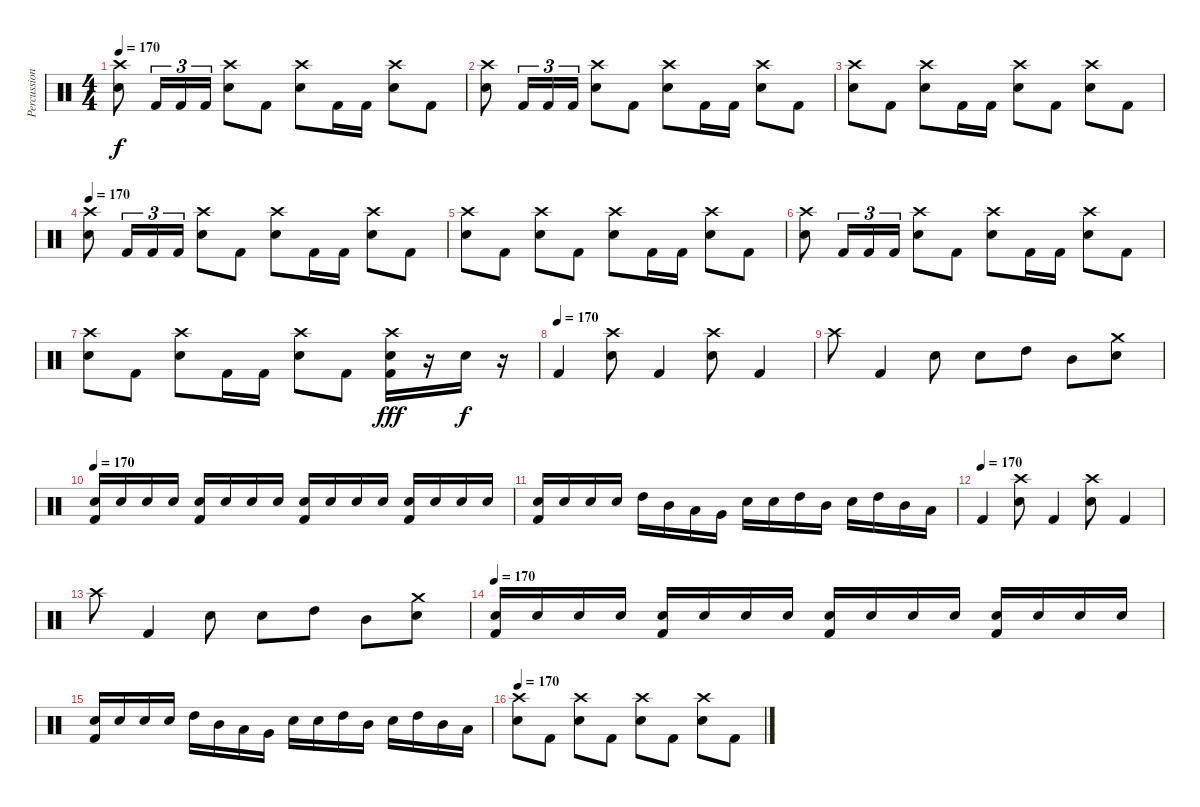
\track ("Percussion" "Percussion") {instrument percussion}
\staff {score}
\articulation defaults
\ts (4 4)
\tempo 170
\clef neutral
\ks c
("Crash high (hit)" "Electric Snare (hit)").8{dy f} "Kick (hit) 2".16{tu (3 2)} "Kick (hit) 2".16{tu (3 2)} "Kick (hit) 2".16{tu (3 2)} ("Crash high (hit)" "Electric Snare (hit)").8 "Kick (hit) 2".8 ("Crash high (hit)" "Electric Snare (hit)").8 "Kick (hit) 2".16 "Kick (hit) 2".16 ("Crash high (hit)" "Electric Snare (hit)").8 "Kick (hit) 2".8 |
("Crash high (hit)" "Electric Snare (hit)").8 "Kick (hit) 2".16{tu (3 2)} "Kick (hit) 2".16{tu (3 2)} "Kick (hit) 2".16{tu (3 2)} ("Crash high (hit)" "Electric Snare (hit)").8 "Kick (hit) 2".8 ("Crash high (hit)" "Electric Snare (hit)").8 "Kick (hit) 2".16 "Kick (hit) 2".16 ("Crash high (hit)" "Electric Snare (hit)").8 "Kick (hit) 2".8 |
("Crash high (hit)" "Electric Snare (hit)").8 "Kick (hit) 2".8 ("Crash high (hit)" "Electric Snare (hit)").8 "Kick (hit) 2".16 "Kick (hit) 2".16 ("Crash high (hit)" "Electric Snare (hit)").8 "Kick (hit) 2".8 ("Crash high (hit)" "Electric Snare (hit)").8 "Kick (hit) 2".8 |
\tempo 170
("Crash high (hit)" "Electric Snare (hit)").8 "Kick (hit) 2".16{tu (3 2)} "Kick (hit) 2".16{tu (3 2)} "Kick (hit) 2".16{tu (3 2)} ("Crash high (hit)" "Electric Snare (hit)").8 "Kick (hit) 2".8 ("Crash high (hit)" "Electric Snare (hit)").8 "Kick (hit) 2".16 "Kick (hit) 2".16 ("Crash high (hit)" "Electric Snare (hit)").8 "Kick (hit) 2".8 |
("Crash high (hit)" "Electric Snare (hit)").8 "Kick (hit) 2".8 ("Crash high (hit)" "Electric Snare (hit)").8 "Kick (hit) 2".8 ("Crash high (hit)" "Electric Snare (hit)").8 "Kick (hit) 2".16 "Kick (hit) 2".16 ("Crash high (hit)" "Electric Snare (hit)").8 "Kick (hit) 2".8 |
("Crash high (hit)" "Electric Snare (hit)").8 "Kick (hit) 2".16{tu (3 2)} "Kick (hit) 2".16{tu (3 2)} "Kick (hit) 2".16{tu (3 2)} ("Crash high (hit)" "Electric Snare (hit)").8 "Kick (hit) 2".8 ("Crash high (hit)" "Electric Snare (hit)").8 "Kick (hit) 2".16 "Kick (hit) 2".16 ("Crash high (hit)" "Electric Snare (hit)").8 "Kick (hit) 2".8 |
("Crash high (hit)" "Electric Snare (hit)").8 "Kick (hit) 2".8 ("Crash high (hit)" "Electric Snare (hit)").8 "Kick (hit) 2".16 "Kick (hit) 2".16 ("Crash high (hit)" "Electric Snare (hit)").8 "Kick (hit) 2".8 ("Crash high (hit)" "Electric Snare (hit)" "Kick (hit) 2").16{dy fff} r.16 "Electric Snare (hit)".16{dy f} r.16 |
\tempo (170)
"Kick (hit) 2".4 ("Crash high (hit)" "Electric Snare (hit)").8 "Kick (hit) 2".4 ("Crash high (hit)" "Electric Snare (hit)").8 "Kick (hit) 2".4 |
"Crash high (hit)".8 "Kick (hit) 2".4 "Electric Snare (hit)".8 "Electric Snare (hit)".8 "High Tom (hit)".8 "Mid Tom (hit)".8 ("Crash medium (hit)" "Electric Snare (hit)").8 |
\tempo 170
("Electric Snare (hit)" "Kick (hit) 2").16 "Electric Snare (hit)".16 "Electric Snare (hit)".16 "Electric Snare (hit)".16 ("Electric Snare (hit)" "Kick (hit) 2").16 "Electric Snare (hit)".16 "Electric Snare (hit)".16 "Electric Snare (hit)".16 ("Electric Snare (hit)" "Kick (hit) 2").16 "Electric Snare (hit)".16 "Electric Snare (hit)".16 "Electric Snare (hit)".16 ("Electric Snare (hit)" "Kick (hit) 2").16 "Electric Snare (hit)".16 "Electric Snare (hit)".16 "Electric Snare (hit)".16 |
("Electric Snare (hit)" "Kick (hit) 2").16 "Electric Snare (hit)".16 "Electric Snare (hit)".16 "Electric Snare (hit)".16 "High Tom (hit)".16 "Mid Tom (hit)".16 "Low Tom (hit)".16 "Very Low Tom (hit)".16 "Electric Snare (hit)".16 "Electric Snare (hit)".16 "High Tom (hit)".16 "Mid Tom (hit)".16 "Electric Snare (hit)".16 "High Tom (hit)".16 "Mid Tom (hit)".16 "Low Tom (hit)".16 |
\tempo (170)
"Kick (hit) 2".4 ("Crash high (hit)" "Electric Snare (hit)").8 "Kick (hit) 2".4 ("Crash high (hit)" "Electric Snare (hit)").8 "Kick (hit) 2".4 |
"Crash high (hit)".8 "Kick (hit) 2".4 "Electric Snare (hit)".8 "Electric Snare (hit)".8 "High Tom (hit)".8 "Mid Tom (hit)".8 ("Crash medium (hit)" "Electric Snare (hit)").8 |
\tempo 170
("Electric Snare (hit)" "Kick (hit) 2").16 "Electric Snare (hit)".16 "Electric Snare (hit)".16 "Electric Snare (hit)".16 ("Electric Snare (hit)" "Kick (hit) 2").16 "Electric Snare (hit)".16 "Electric Snare (hit)".16 "Electric Snare (hit)".16 ("Electric Snare (hit)" "Kick (hit) 2").16 "Electric Snare (hit)".16 "Electric Snare (hit)".16 "Electric Snare (hit)".16 ("Electric Snare (hit)" "Kick (hit) 2").16 "Electric Snare (hit)".16 "Electric Snare (hit)".16 "Electric Snare (hit)".16 |
("Electric Snare (hit)" "Kick (hit) 2").16 "Electric Snare (hit)".16 "Electric Snare (hit)".16 "Electric Snare (hit)".16 "High Tom (hit)".16 "Mid Tom (hit)".16 "Low Tom (hit)".16 "Very Low Tom (hit)".16 "Electric Snare (hit)".16 "Electric Snare (hit)".16 "High Tom (hit)".16 "Mid Tom (hit)".16 "Electric Snare (hit)".16 "High Tom (hit)".16 "Mid Tom (hit)".16 "Low Tom (hit)".16 |
\tempo 170
("Crash high (hit)" "Electric Snare (hit)").8 "Kick (hit) 2".8 ("Crash high (hit)" "Electric Snare (hit)").8 "Kick (hit) 2".8 ("Crash high (hit)" "Electric Snare (hit)").8 "Kick (hit) 2".8 ("Crash high (hit)" "Electric Snare (hit)").8 "Kick (hit) 2".8
